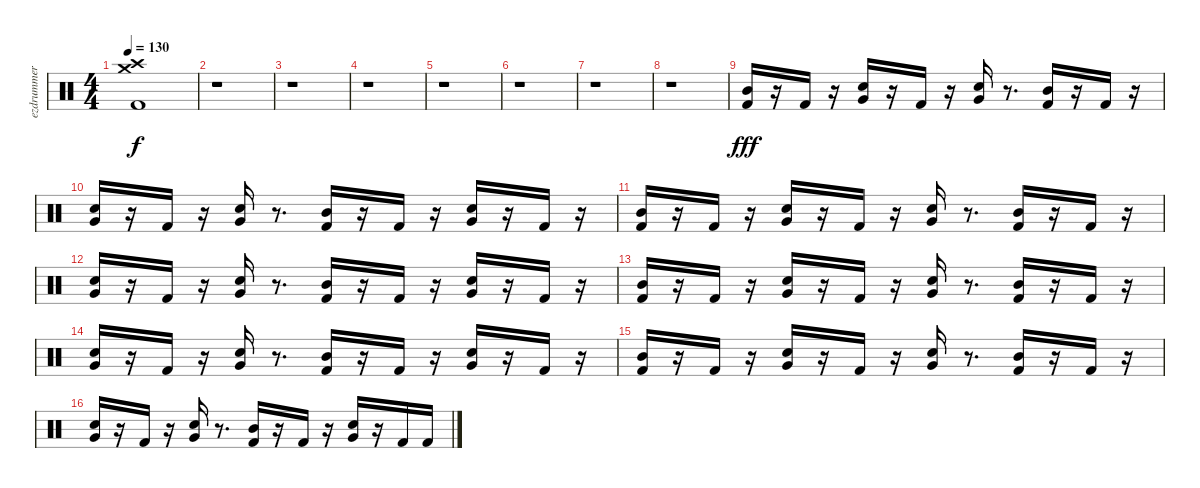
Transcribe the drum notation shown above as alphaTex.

\track ("ezdrummer 01" "ezdrummer ") {instrument percussion}
\staff {score}
\articulation defaults
\ts (4 4)
\tempo 130
\clef neutral
\ks c
("Kick (hit) 2" "Crash medium (hit)" "Crash high (hit)").1{dy f} |
r.1 |
r.1 |
r.1 |
r.1 |
r.1 |
r.1 |
r.1 |
("Mid Tom (hit)" "Kick (hit) 2").16{dy fff} r.16 "Kick (hit) 2".16 r.16 ("Snare (hit) 2" "Very Low Tom (hit)").16 r.16 "Kick (hit) 2".16 r.16 ("Very Low Tom (hit)" "Snare (hit) 2").16 r.8{d} ("Kick (hit) 2" "Mid Tom (hit)").16 r.16 "Kick (hit) 2".16 r.16 |
("Snare (hit) 2" "Very Low Tom (hit)").16 r.16 "Kick (hit) 2".16 r.16 ("Snare (hit) 2" "Very Low Tom (hit)").16 r.8{d} ("Kick (hit) 2" "Mid Tom (hit)").16 r.16 "Kick (hit) 2".16 r.16 ("Very Low Tom (hit)" "Snare (hit) 2").16 r.16 "Kick (hit) 2".16 r.16 |
("Mid Tom (hit)" "Kick (hit) 2").16 r.16 "Kick (hit) 2".16 r.16 ("Snare (hit) 2" "Very Low Tom (hit)").16 r.16 "Kick (hit) 2".16 r.16 ("Very Low Tom (hit)" "Snare (hit) 2").16 r.8{d} ("Kick (hit) 2" "Mid Tom (hit)").16 r.16 "Kick (hit) 2".16 r.16 |
("Snare (hit) 2" "Very Low Tom (hit)").16 r.16 "Kick (hit) 2".16 r.16 ("Snare (hit) 2" "Very Low Tom (hit)").16 r.8{d} ("Kick (hit) 2" "Mid Tom (hit)").16 r.16 "Kick (hit) 2".16 r.16 ("Very Low Tom (hit)" "Snare (hit) 2").16 r.16 "Kick (hit) 2".16 r.16 |
("Mid Tom (hit)" "Kick (hit) 2").16 r.16 "Kick (hit) 2".16 r.16 ("Snare (hit) 2" "Very Low Tom (hit)").16 r.16 "Kick (hit) 2".16 r.16 ("Very Low Tom (hit)" "Snare (hit) 2").16 r.8{d} ("Kick (hit) 2" "Mid Tom (hit)").16 r.16 "Kick (hit) 2".16 r.16 |
("Snare (hit) 2" "Very Low Tom (hit)").16 r.16 "Kick (hit) 2".16 r.16 ("Snare (hit) 2" "Very Low Tom (hit)").16 r.8{d} ("Kick (hit) 2" "Mid Tom (hit)").16 r.16 "Kick (hit) 2".16 r.16 ("Very Low Tom (hit)" "Snare (hit) 2").16 r.16 "Kick (hit) 2".16 r.16 |
("Mid Tom (hit)" "Kick (hit) 2").16 r.16 "Kick (hit) 2".16 r.16 ("Snare (hit) 2" "Very Low Tom (hit)").16 r.16 "Kick (hit) 2".16 r.16 ("Very Low Tom (hit)" "Snare (hit) 2").16 r.8{d} ("Kick (hit) 2" "Mid Tom (hit)").16 r.16 "Kick (hit) 2".16 r.16 |
("Snare (hit) 2" "Very Low Tom (hit)").16 r.16 "Kick (hit) 2".16 r.16 ("Snare (hit) 2" "Very Low Tom (hit)").16 r.8{d} ("Kick (hit) 2" "Mid Tom (hit)").16 r.16 "Kick (hit) 2".16 r.16 ("Snare (hit) 2" "Very Low Tom (hit)").16 r.16 "Kick (hit) 2".16 "Kick (hit) 2".16
